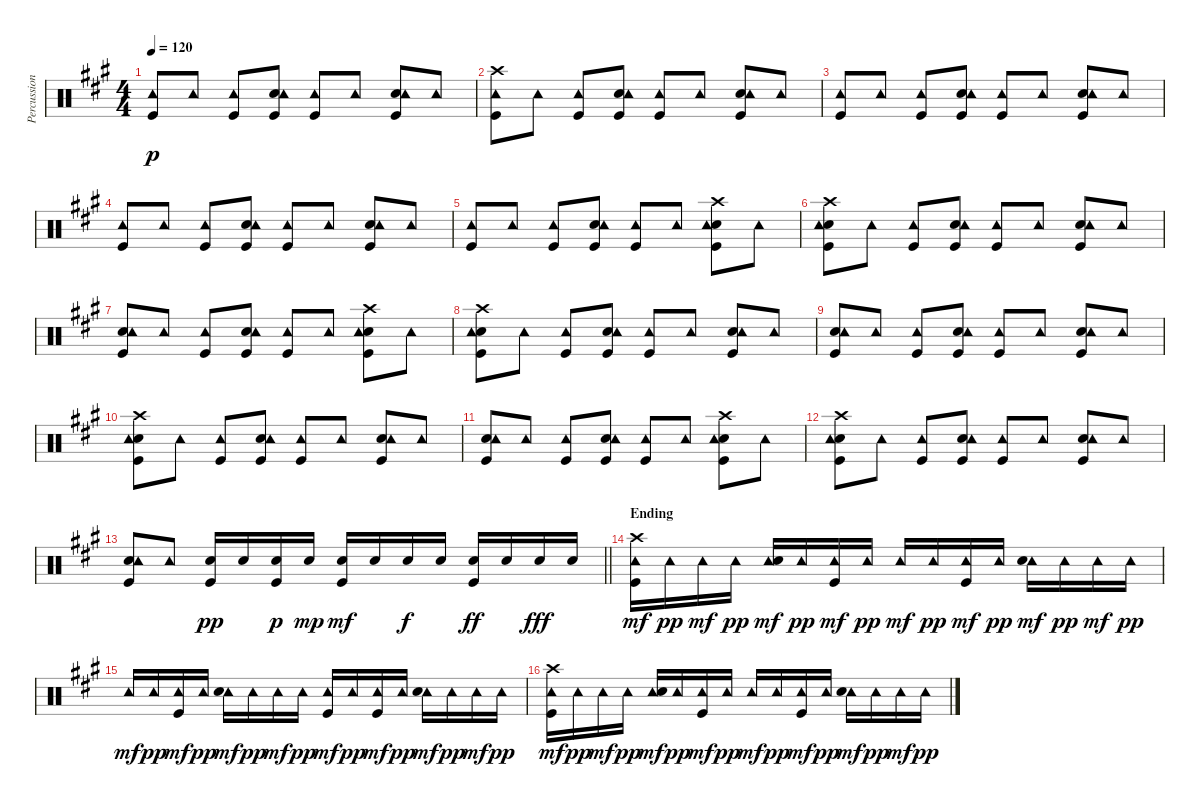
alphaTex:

\track ("Percussion" "Percussion") {instrument percussion}
\staff {score}
\articulation defaults
\ts (4 4)
\tempo 120
\clef neutral
\ks a
("Kick (hit)" "Tambourine (hit)").8{dy p} "Tambourine (hit)".8 ("Kick (hit)" "Tambourine (hit)").8 ("Kick (hit)" "Electric Snare (hit)" "Tambourine (hit)").8 ("Kick (hit)" "Tambourine (hit)").8 "Tambourine (hit)".8 ("Kick (hit)" "Electric Snare (hit)" "Tambourine (hit)").8 "Tambourine (hit)".8 |
("Kick (hit)" "Crash high (hit)" "Tambourine (hit)").8 "Tambourine (hit)".8 ("Kick (hit)" "Tambourine (hit)").8 ("Kick (hit)" "Electric Snare (hit)" "Tambourine (hit)").8 ("Kick (hit)" "Tambourine (hit)").8 "Tambourine (hit)".8 ("Kick (hit)" "Electric Snare (hit)" "Tambourine (hit)").8 "Tambourine (hit)".8 |
("Kick (hit)" "Tambourine (hit)").8 "Tambourine (hit)".8 ("Kick (hit)" "Tambourine (hit)").8 ("Kick (hit)" "Electric Snare (hit)" "Tambourine (hit)").8 ("Kick (hit)" "Tambourine (hit)").8 "Tambourine (hit)".8 ("Kick (hit)" "Electric Snare (hit)" "Tambourine (hit)").8 "Tambourine (hit)".8 |
("Kick (hit)" "Tambourine (hit)").8 "Tambourine (hit)".8 ("Kick (hit)" "Tambourine (hit)").8 ("Kick (hit)" "Electric Snare (hit)" "Tambourine (hit)").8 ("Kick (hit)" "Tambourine (hit)").8 "Tambourine (hit)".8 ("Kick (hit)" "Electric Snare (hit)" "Tambourine (hit)").8 "Tambourine (hit)".8 |
("Kick (hit)" "Tambourine (hit)").8 "Tambourine (hit)".8 ("Kick (hit)" "Tambourine (hit)").8 ("Kick (hit)" "Electric Snare (hit)" "Tambourine (hit)").8 ("Kick (hit)" "Tambourine (hit)").8 "Tambourine (hit)".8 ("Kick (hit)" "Electric Snare (hit)" "Crash high (hit)" "Tambourine (hit)").8 "Tambourine (hit)".8 |
("Kick (hit)" "Electric Snare (hit)" "Crash high (hit)" "Tambourine (hit)").8 "Tambourine (hit)".8 ("Kick (hit)" "Tambourine (hit)").8 ("Kick (hit)" "Electric Snare (hit)" "Tambourine (hit)").8 ("Kick (hit)" "Tambourine (hit)").8 "Tambourine (hit)".8 ("Kick (hit)" "Electric Snare (hit)" "Tambourine (hit)").8 "Tambourine (hit)".8 |
("Kick (hit)" "Electric Snare (hit)" "Tambourine (hit)").8 "Tambourine (hit)".8 ("Kick (hit)" "Tambourine (hit)").8 ("Kick (hit)" "Electric Snare (hit)" "Tambourine (hit)").8 ("Kick (hit)" "Tambourine (hit)").8 "Tambourine (hit)".8 ("Kick (hit)" "Electric Snare (hit)" "Crash high (hit)" "Tambourine (hit)").8 "Tambourine (hit)".8 |
("Kick (hit)" "Electric Snare (hit)" "Crash high (hit)" "Tambourine (hit)").8 "Tambourine (hit)".8 ("Kick (hit)" "Tambourine (hit)").8 ("Kick (hit)" "Electric Snare (hit)" "Tambourine (hit)").8 ("Kick (hit)" "Tambourine (hit)").8 "Tambourine (hit)".8 ("Kick (hit)" "Electric Snare (hit)" "Tambourine (hit)").8 "Tambourine (hit)".8 |
("Kick (hit)" "Electric Snare (hit)" "Tambourine (hit)").8 "Tambourine (hit)".8 ("Kick (hit)" "Tambourine (hit)").8 ("Kick (hit)" "Electric Snare (hit)" "Tambourine (hit)").8 ("Kick (hit)" "Tambourine (hit)").8 "Tambourine (hit)".8 ("Kick (hit)" "Electric Snare (hit)" "Tambourine (hit)").8 "Tambourine (hit)".8 |
("Kick (hit)" "Electric Snare (hit)" "Crash high (hit)" "Tambourine (hit)").8 "Tambourine (hit)".8 ("Kick (hit)" "Tambourine (hit)").8 ("Kick (hit)" "Electric Snare (hit)" "Tambourine (hit)").8 ("Kick (hit)" "Tambourine (hit)").8 "Tambourine (hit)".8 ("Kick (hit)" "Electric Snare (hit)" "Tambourine (hit)").8 "Tambourine (hit)".8 |
("Kick (hit)" "Electric Snare (hit)" "Tambourine (hit)").8 "Tambourine (hit)".8 ("Kick (hit)" "Tambourine (hit)").8 ("Kick (hit)" "Electric Snare (hit)" "Tambourine (hit)").8 ("Kick (hit)" "Tambourine (hit)").8 "Tambourine (hit)".8 ("Kick (hit)" "Electric Snare (hit)" "Crash high (hit)" "Tambourine (hit)").8 "Tambourine (hit)".8 |
("Kick (hit)" "Electric Snare (hit)" "Crash high (hit)" "Tambourine (hit)").8 "Tambourine (hit)".8 ("Kick (hit)" "Tambourine (hit)").8 ("Kick (hit)" "Electric Snare (hit)" "Tambourine (hit)").8 ("Kick (hit)" "Tambourine (hit)").8 "Tambourine (hit)".8 ("Kick (hit)" "Electric Snare (hit)" "Tambourine (hit)").8 "Tambourine (hit)".8 |
\barLineRight lightlight
("Kick (hit)" "Electric Snare (hit)" "Tambourine (hit)").8 "Tambourine (hit)".8 ("Kick (hit)" "Electric Snare (hit)").16{dy pp} "Electric Snare (hit)".16 ("Kick (hit)" "Electric Snare (hit)").16{dy p} "Electric Snare (hit)".16{dy mp} ("Kick (hit)" "Electric Snare (hit)").16{dy mf} "Electric Snare (hit)".16 "Electric Snare (hit)".16{dy f} "Electric Snare (hit)".16 ("Kick (hit)" "Electric Snare (hit)").16{dy ff} "Electric Snare (hit)".16 "Electric Snare (hit)".16{dy fff} "Electric Snare (hit)".16 |
\section ("" "Ending")
("Crash high (hit)" "Tambourine (hit)" "Kick (hit)").16{dy mf} "Tambourine (hit)".16{dy pp} "Tambourine (hit)".16{dy mf} "Tambourine (hit)".16{dy pp} ("Tambourine (hit)" "Electric Snare (hit)").16{dy mf} "Tambourine (hit)".16{dy pp} ("Tambourine (hit)" "Kick (hit)").16{dy mf} "Tambourine (hit)".16{dy pp} "Tambourine (hit)".16{dy mf} "Tambourine (hit)".16{dy pp} ("Tambourine (hit)" "Kick (hit)").16{dy mf} "Tambourine (hit)".16{dy pp} ("Tambourine (hit)" "Electric Snare (hit)").16{dy mf} "Tambourine (hit)".16{dy pp} "Tambourine (hit)".16{dy mf} "Tambourine (hit)".16{dy pp} |
"Tambourine (hit)".16{dy mf} "Tambourine (hit)".16{dy pp} ("Tambourine (hit)" "Kick (hit)").16{dy mf} "Tambourine (hit)".16{dy pp} ("Tambourine (hit)" "Electric Snare (hit)").16{dy mf} "Tambourine (hit)".16{dy pp} "Tambourine (hit)".16{dy mf} "Tambourine (hit)".16{dy pp} ("Tambourine (hit)" "Kick (hit)").16{dy mf} "Tambourine (hit)".16{dy pp} ("Tambourine (hit)" "Kick (hit)").16{dy mf} "Tambourine (hit)".16{dy pp} ("Tambourine (hit)" "Electric Snare (hit)").16{dy mf} "Tambourine (hit)".16{dy pp} "Tambourine (hit)".16{dy mf} "Tambourine (hit)".16{dy pp} |
("Crash high (hit)" "Tambourine (hit)" "Kick (hit)").16{dy mf} "Tambourine (hit)".16{dy pp} "Tambourine (hit)".16{dy mf} "Tambourine (hit)".16{dy pp} ("Tambourine (hit)" "Electric Snare (hit)").16{dy mf} "Tambourine (hit)".16{dy pp} ("Tambourine (hit)" "Kick (hit)").16{dy mf} "Tambourine (hit)".16{dy pp} "Tambourine (hit)".16{dy mf} "Tambourine (hit)".16{dy pp} ("Tambourine (hit)" "Kick (hit)").16{dy mf} "Tambourine (hit)".16{dy pp} ("Tambourine (hit)" "Electric Snare (hit)").16{dy mf} "Tambourine (hit)".16{dy pp} "Tambourine (hit)".16{dy mf} "Tambourine (hit)".16{dy pp}
